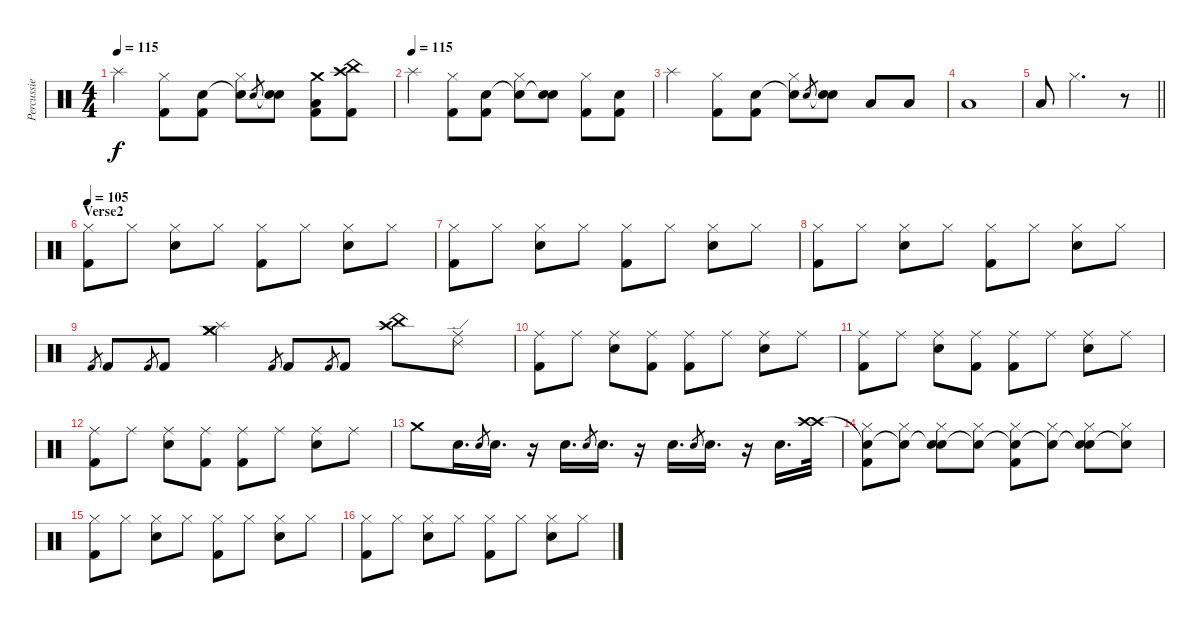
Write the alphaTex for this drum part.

\track ("Percussie" "Percussie") {instrument percussion}
\staff {score}
\articulation defaults
\ts (4 4)
\tempo 115
\clef neutral
\ks c "Splash (hit)".4{dy f}
("Hi-Hat (closed)" "Kick (hit) 2").8 ("Snare (hit) 2" "Kick (hit) 2").8 ("Snare (hit)"{t} "Hi-Hat (closed)").8 "Snare (hit) 2".8{gr} ("Snare (hit)"{t} "Snare (hit) 2").8 ("Crash medium (hit)" "Kick (hit) 2" "Low Floor Tom (hit)").8 ("China (hit)" "Crash high (hit)" "Kick (hit) 2").8 |
\tempo (115)
"Splash (hit)".4 ("Hi-Hat (closed)" "Kick (hit) 2").8 ("Snare (hit) 2" "Kick (hit) 2").8 ("Snare (hit)"{t} "Hi-Hat (closed)").8 ("Snare (hit)"{t} "Snare (hit) 2").8 ("Hi-Hat (closed)" "Kick (hit) 2").8 ("Snare (hit) 2" "Kick (hit) 2").8 |
"Splash (hit)".4 ("Hi-Hat (closed)" "Kick (hit) 2").8 ("Snare (hit) 2" "Kick (hit) 2").8 ("Snare (hit)"{t} "Hi-Hat (closed)").8 "Snare (hit) 2".8{gr} ("Snare (hit)"{t} "Snare (hit) 2").8 "Low Floor Tom (hit)".8 "Low Floor Tom (hit)".8 |
"Low Floor Tom (hit)".1 |
\barLineRight lightlight "Low Floor Tom (hit)".8 "Hi-Hat (closed)".2{d}
r.8 |
\section ("" "Verse2")
\tempo 105
("Hi-Hat (closed)" "Kick (hit) 2").8 "Hi-Hat (closed)".8 ("Hi-Hat (closed)" "Snare (hit) 2").8 "Hi-Hat (closed)".8 ("Hi-Hat (closed)" "Kick (hit) 2").8 "Hi-Hat (closed)".8 ("Hi-Hat (closed)" "Snare (hit) 2").8 "Hi-Hat (closed)".8 |
("Hi-Hat (closed)" "Kick (hit) 2").8 "Hi-Hat (closed)".8 ("Hi-Hat (closed)" "Snare (hit) 2").8 "Hi-Hat (closed)".8 ("Hi-Hat (closed)" "Kick (hit) 2").8 "Hi-Hat (closed)".8 ("Hi-Hat (closed)" "Snare (hit) 2").8 "Hi-Hat (closed)".8 |
("Hi-Hat (closed)" "Kick (hit) 2").8 "Hi-Hat (closed)".8 ("Hi-Hat (closed)" "Snare (hit) 2").8 "Hi-Hat (closed)".8 ("Hi-Hat (closed)" "Kick (hit) 2").8 "Hi-Hat (closed)".8 ("Hi-Hat (closed)" "Snare (hit) 2").8 "Hi-Hat (closed)".8 |
"Kick (hit) 2".8{gr} "Kick (hit) 2".8 "Kick (hit) 2".8{gr} "Kick (hit) 2".8 ("Crash medium (hit)" "Crash medium (hit)" "Splash (hit)").4 "Kick (hit) 2".8{gr} "Kick (hit) 2".8 "Kick (hit) 2".8{gr} "Kick (hit) 2".8 ("Crash high (hit)" "China (hit)").8 ("Ride (middle)" "Ride (edge) 2").8 |
("Ride (middle)" "Kick (hit) 2").8 "Ride (middle)".8 ("Ride (middle)" "Snare (hit) 2").8 ("Ride (middle)" "Kick (hit) 2").8 ("Ride (middle)" "Kick (hit) 2").8 "Ride (middle)".8 ("Ride (middle)" "Snare (hit) 2").8 "Ride (middle)".8 |
("Ride (middle)" "Kick (hit) 2").8 "Ride (middle)".8 ("Ride (middle)" "Snare (hit) 2").8 ("Ride (middle)" "Kick (hit) 2").8 ("Ride (middle)" "Kick (hit) 2").8 "Ride (middle)".8 ("Ride (middle)" "Snare (hit) 2").8 "Ride (middle)".8 |
("Ride (middle)" "Kick (hit) 2").8 "Ride (middle)".8 ("Ride (middle)" "Snare (hit) 2").8 ("Ride (middle)" "Kick (hit) 2").8 ("Ride (middle)" "Kick (hit) 2").8 "Ride (middle)".8 ("Ride (middle)" "Snare (hit) 2").8 "Ride (middle)".8 |
"Crash medium (hit)".8 "Snare (hit) 2".16{d} "Snare (hit) 2".8{gr} "Snare (hit) 2".16{d} r.16 "Snare (hit) 2".16{d} "Snare (hit) 2".8{gr} "Snare (hit) 2".16{d} r.16 "Snare (hit) 2".16{d} "Snare (hit) 2".8{gr} "Snare (hit) 2".16{d} r.16 "Snare (hit) 2".16{d} ("Crash high (hit)" "Crash high (hit)").32 |
("Snare (hit)"{t} "Hi-Hat (closed)" "Kick (hit) 2").8 ("Snare (hit)"{t} "Hi-Hat (closed)").8 ("Snare (hit)"{t} "Hi-Hat (closed)" "Snare (hit) 2").8 ("Snare (hit)"{t} "Hi-Hat (closed)").8 ("Snare (hit)"{t} "Hi-Hat (closed)" "Kick (hit) 2").8 ("Snare (hit)"{t} "Hi-Hat (closed)").8 ("Snare (hit)"{t} "Hi-Hat (closed)" "Snare (hit) 2").8 ("Snare (hit)"{t} "Hi-Hat (closed)").8 |
("Hi-Hat (closed)" "Kick (hit) 2").8 "Hi-Hat (closed)".8 ("Hi-Hat (closed)" "Snare (hit) 2").8 "Hi-Hat (closed)".8 ("Hi-Hat (closed)" "Kick (hit) 2").8 "Hi-Hat (closed)".8 ("Hi-Hat (closed)" "Snare (hit) 2").8 "Hi-Hat (closed)".8 |
("Hi-Hat (closed)" "Kick (hit) 2").8 "Hi-Hat (closed)".8 ("Hi-Hat (closed)" "Snare (hit) 2").8 "Hi-Hat (closed)".8 ("Hi-Hat (closed)" "Kick (hit) 2").8 "Hi-Hat (closed)".8 ("Hi-Hat (closed)" "Snare (hit) 2").8 "Hi-Hat (closed)".8
